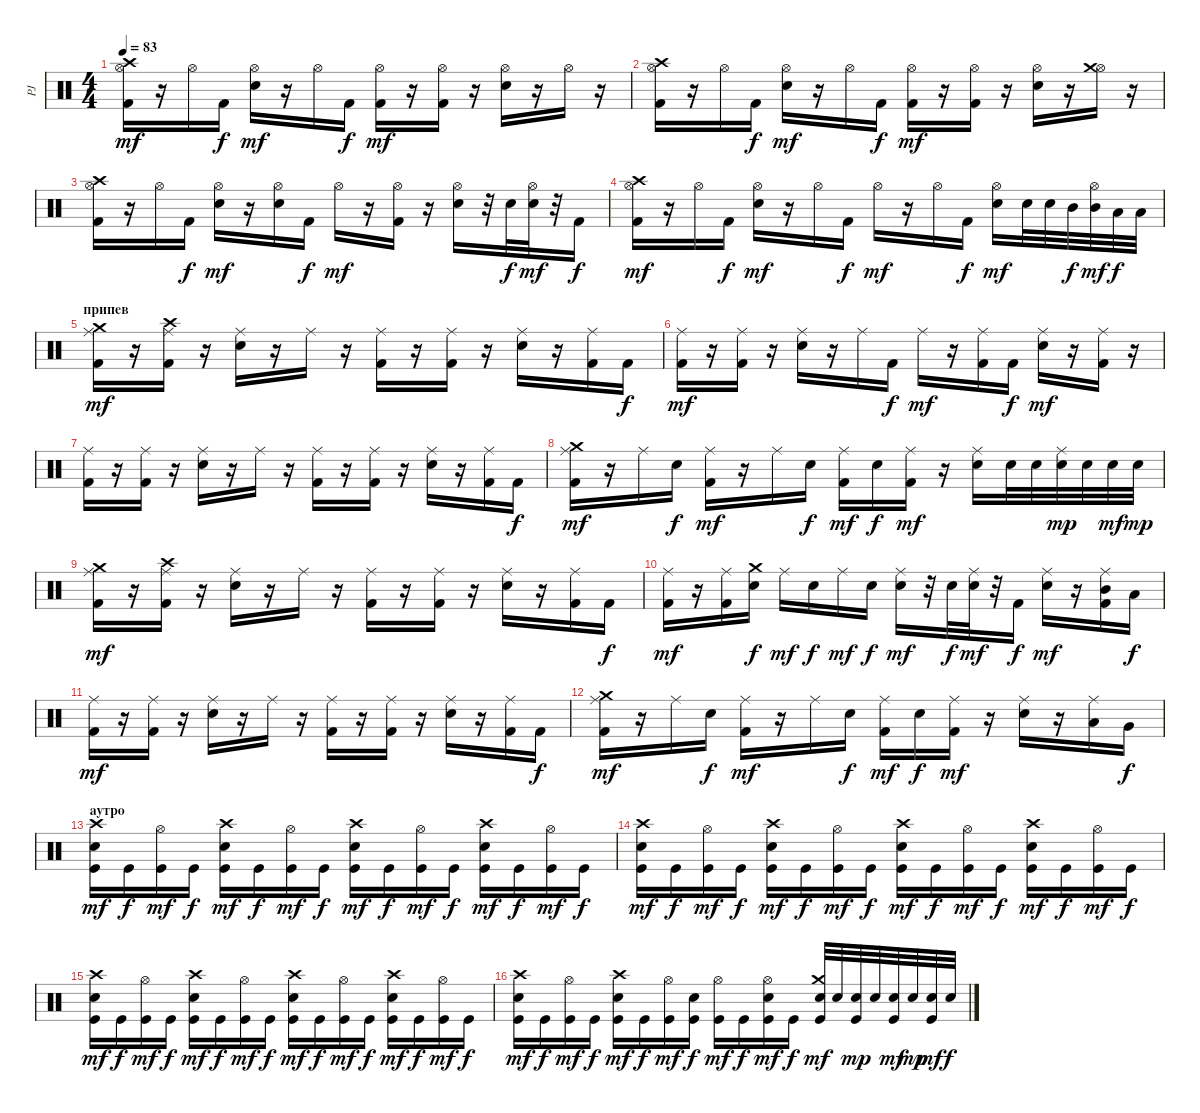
\track ("PJ" "PJ") {instrument percussion}
\staff {score}
\articulation defaults
\ts (4 4)
\tempo 83
\clef neutral
\ks c
("Hi-Hat (open)" "Crash high (hit)" "Kick (hit) 2").16{dy mf} r.16 "Hi-Hat (open)".16 "Kick (hit) 2".16{dy f} ("Hi-Hat (open)" "Electric Snare (hit)").16{dy mf} r.16 "Hi-Hat (open)".16 "Kick (hit) 2".16{dy f} ("Hi-Hat (open)" "Kick (hit) 2").16{dy mf} r.16 ("Hi-Hat (open)" "Kick (hit) 2").16 r.16 ("Hi-Hat (open)" "Electric Snare (hit)").16 r.16 "Hi-Hat (open)".16 r.16 |
("Hi-Hat (open)" "Crash high (hit)" "Kick (hit) 2").16 r.16 "Hi-Hat (open)".16 "Kick (hit) 2".16{dy f} ("Hi-Hat (open)" "Electric Snare (hit)").16{dy mf} r.16 "Hi-Hat (open)".16 "Kick (hit) 2".16{dy f} ("Hi-Hat (open)" "Kick (hit) 2").16{dy mf} r.16 ("Hi-Hat (open)" "Kick (hit) 2").16 r.16 ("Hi-Hat (open)" "Electric Snare (hit)").16 r.16 ("Hi-Hat (open)" "Crash medium (hit)").16 r.16 |
("Hi-Hat (open)" "Crash high (hit)" "Kick (hit) 2").16 r.16 "Hi-Hat (open)".16 "Kick (hit) 2".16{dy f} ("Hi-Hat (open)" "Electric Snare (hit)").16{dy mf} r.16 ("Hi-Hat (open)" "Electric Snare (hit)").16 "Kick (hit) 2".16{dy f} "Hi-Hat (open)".16{dy mf} r.16 ("Hi-Hat (open)" "Kick (hit) 2").16 r.16 ("Hi-Hat (open)" "Electric Snare (hit)").16 r.32 "Electric Snare (hit)".32{dy f} ("Hi-Hat (open)" "Electric Snare (hit)").32{dy mf} r.32 "Kick (hit) 2".16{dy f} |
("Hi-Hat (open)" "Crash high (hit)" "Kick (hit) 2").16{dy mf} r.16 "Hi-Hat (open)".16 "Kick (hit) 2".16{dy f} ("Hi-Hat (open)" "Electric Snare (hit)").16{dy mf} r.16 "Hi-Hat (open)".16 "Kick (hit) 2".16{dy f} "Hi-Hat (open)".16{dy mf} r.16 "Hi-Hat (open)".16 "Kick (hit) 2".16{dy f} ("Hi-Hat (open)" "Electric Snare (hit)").16{dy mf} "Electric Snare (hit)".32 "Electric Snare (hit)".32 "Mid Tom (hit)".32{dy f} ("Hi-Hat (open)" "Mid Tom (hit)").32{dy mf} "Low Tom (hit)".32{dy f} "Low Tom (hit)".32 |
\section ("" "припев")
("Ride (middle)" "Crash medium (hit)" "Kick (hit) 2").16{dy mf} r.16 ("Ride (middle)" "Crash high (hit)" "Kick (hit) 2").16 r.16 ("Ride (middle)" "Electric Snare (hit)").16 r.16 "Ride (middle)".16 r.16 ("Ride (middle)" "Kick (hit) 2").16 r.16 ("Ride (middle)" "Kick (hit) 2").16 r.16 ("Ride (middle)" "Electric Snare (hit)").16 r.16 ("Ride (middle)" "Kick (hit) 2").16 "Kick (hit) 2".16{dy f} |
("Ride (middle)" "Kick (hit) 2").16{dy mf} r.16 ("Ride (middle)" "Kick (hit) 2").16 r.16 ("Ride (middle)" "Electric Snare (hit)").16 r.16 "Ride (middle)".16 "Kick (hit) 2".16{dy f} "Ride (middle)".16{dy mf} r.16 ("Ride (middle)" "Kick (hit) 2").16 "Kick (hit) 2".16{dy f} ("Ride (middle)" "Electric Snare (hit)").16{dy mf} r.16 ("Ride (middle)" "Kick (hit) 2").16 r.16 |
("Ride (middle)" "Kick (hit) 2").16 r.16 ("Ride (middle)" "Kick (hit) 2").16 r.16 ("Ride (middle)" "Electric Snare (hit)").16 r.16 "Ride (middle)".16 r.16 ("Ride (middle)" "Kick (hit) 2").16 r.16 ("Ride (middle)" "Kick (hit) 2").16 r.16 ("Ride (middle)" "Electric Snare (hit)").16 r.16 ("Ride (middle)" "Kick (hit) 2").16 "Kick (hit) 2".16{dy f} |
("Ride (middle)" "Crash medium (hit)" "Kick (hit) 2").16{dy mf} r.16 "Ride (middle)".16 "Electric Snare (hit)".16{dy f} ("Ride (middle)" "Kick (hit) 2").16{dy mf} r.16 "Ride (middle)".16 "Electric Snare (hit)".16{dy f} ("Ride (middle)" "Kick (hit) 2").16{dy mf} "Electric Snare (hit)".16{dy f} ("Ride (middle)" "Kick (hit) 2").16{dy mf} r.16 ("Ride (middle)" "Electric Snare (hit)").16 "Electric Snare (hit)".32 "Electric Snare (hit)".32 ("Ride (middle)" "Electric Snare (hit)").32{dy mp} "Electric Snare (hit)".32 "Electric Snare (hit)".32{dy mf} "Electric Snare (hit)".32{dy mp} |
("Ride (middle)" "Crash medium (hit)" "Kick (hit) 2").16{dy mf} r.16 ("Ride (middle)" "Crash high (hit)" "Kick (hit) 2").16 r.16 ("Ride (middle)" "Electric Snare (hit)").16 r.16 "Ride (middle)".16 r.16 ("Ride (middle)" "Kick (hit) 2").16 r.16 ("Ride (middle)" "Kick (hit) 2").16 r.16 ("Ride (middle)" "Electric Snare (hit)").16 r.16 ("Ride (middle)" "Kick (hit) 2").16 "Kick (hit) 2".16{dy f} |
("Ride (middle)" "Kick (hit) 2").16{dy mf} r.16 ("Ride (middle)" "Kick (hit) 2").16 ("Crash medium (hit)" "Electric Snare (hit)").16{dy f} "Ride (middle)".16{dy mf} "Electric Snare (hit)".16{dy f} "Ride (middle)".16{dy mf} "Electric Snare (hit)".16{dy f} ("Ride (middle)" "Electric Snare (hit)").16{dy mf} r.32 "Electric Snare (hit)".32{dy f} ("Ride (middle)" "Electric Snare (hit)").32{dy mf} r.32 "Kick (hit) 2".16{dy f} ("Ride (middle)" "Electric Snare (hit)").16{dy mf} r.16 ("Ride (middle)" "Mid Tom (hit)" "Kick (hit) 2").16 "Low Tom (hit)".16{dy f} |
("Ride (middle)" "Kick (hit) 2").16{dy mf} r.16 ("Ride (middle)" "Kick (hit) 2").16 r.16 ("Ride (middle)" "Electric Snare (hit)").16 r.16 "Ride (middle)".16 r.16 ("Ride (middle)" "Kick (hit) 2").16 r.16 ("Ride (middle)" "Kick (hit) 2").16 r.16 ("Ride (middle)" "Electric Snare (hit)").16 r.16 ("Ride (middle)" "Kick (hit) 2").16 "Kick (hit) 2".16{dy f} |
("Ride (middle)" "Crash medium (hit)" "Kick (hit) 2").16{dy mf} r.16 "Ride (middle)".16 "Electric Snare (hit)".16{dy f} ("Ride (middle)" "Kick (hit) 2").16{dy mf} r.16 "Ride (middle)".16 "Electric Snare (hit)".16{dy f} ("Ride (middle)" "Kick (hit) 2").16{dy mf} "Electric Snare (hit)".16{dy f} ("Ride (middle)" "Kick (hit) 2").16{dy mf} r.16 ("Ride (middle)" "Electric Snare (hit)").16 r.16 ("Ride (middle)" "Low Tom (hit)").16 "Very Low Tom (hit)".16{dy f} |
\section ("" "аутро")
("Crash high (hit)" "Electric Snare (hit)" "Kick (hit)").16{dy mf} "Kick (hit)".16{dy f} ("Hi-Hat (open)" "Kick (hit)").16{dy mf} "Kick (hit)".16{dy f} ("Crash high (hit)" "Electric Snare (hit)" "Kick (hit)").16{dy mf} "Kick (hit)".16{dy f} ("Hi-Hat (open)" "Kick (hit)").16{dy mf} "Kick (hit)".16{dy f} ("Crash high (hit)" "Electric Snare (hit)" "Kick (hit)").16{dy mf} "Kick (hit)".16{dy f} ("Hi-Hat (open)" "Kick (hit)").16{dy mf} "Kick (hit)".16{dy f} ("Crash high (hit)" "Electric Snare (hit)" "Kick (hit)").16{dy mf} "Kick (hit)".16{dy f} ("Hi-Hat (open)" "Kick (hit)").16{dy mf} "Kick (hit)".16{dy f} |
("Crash high (hit)" "Electric Snare (hit)" "Kick (hit)").16{dy mf} "Kick (hit)".16{dy f} ("Hi-Hat (open)" "Kick (hit)").16{dy mf} "Kick (hit)".16{dy f} ("Crash high (hit)" "Electric Snare (hit)" "Kick (hit)").16{dy mf} "Kick (hit)".16{dy f} ("Hi-Hat (open)" "Kick (hit)").16{dy mf} "Kick (hit)".16{dy f} ("Crash high (hit)" "Electric Snare (hit)" "Kick (hit)").16{dy mf} "Kick (hit)".16{dy f} ("Hi-Hat (open)" "Kick (hit)").16{dy mf} "Kick (hit)".16{dy f} ("Crash high (hit)" "Electric Snare (hit)" "Kick (hit)").16{dy mf} "Kick (hit)".16{dy f} ("Hi-Hat (open)" "Kick (hit)").16{dy mf} "Kick (hit)".16{dy f} |
("Crash high (hit)" "Electric Snare (hit)" "Kick (hit)").16{dy mf} "Kick (hit)".16{dy f} ("Hi-Hat (open)" "Kick (hit)").16{dy mf} "Kick (hit)".16{dy f} ("Crash high (hit)" "Electric Snare (hit)" "Kick (hit)").16{dy mf} "Kick (hit)".16{dy f} ("Hi-Hat (open)" "Kick (hit)").16{dy mf} "Kick (hit)".16{dy f} ("Crash high (hit)" "Electric Snare (hit)" "Kick (hit)").16{dy mf} "Kick (hit)".16{dy f} ("Hi-Hat (open)" "Kick (hit)").16{dy mf} "Kick (hit)".16{dy f} ("Crash high (hit)" "Electric Snare (hit)" "Kick (hit)").16{dy mf} "Kick (hit)".16{dy f} ("Hi-Hat (open)" "Kick (hit)").16{dy mf} "Kick (hit)".16{dy f} |
("Crash high (hit)" "Electric Snare (hit)" "Kick (hit)").16{dy mf} "Kick (hit)".16{dy f} ("Hi-Hat (open)" "Kick (hit)").16{dy mf} "Kick (hit)".16{dy f} ("Crash high (hit)" "Electric Snare (hit)" "Kick (hit)").16{dy mf} "Kick (hit)".16{dy f} ("Hi-Hat (open)" "Kick (hit)").16{dy mf} ("Electric Snare (hit)" "Kick (hit)").16{dy f} ("Hi-Hat (open)" "Kick (hit)").16{dy mf} "Kick (hit)".16{dy f} ("Hi-Hat (open)" "Electric Snare (hit)" "Kick (hit)").16{dy mf} "Kick (hit)".16{dy f} ("Crash medium (hit)" "Electric Snare (hit)" "Kick (hit)").32{dy mf} "Electric Snare (hit)".32 ("Electric Snare (hit)" "Kick (hit)").32{dy mp} "Electric Snare (hit)".32 ("Electric Snare (hit)" "Kick (hit)").32{dy mf} "Electric Snare (hit)".32{dy mp} ("Electric Snare (hit)" "Kick (hit)").32{dy mf} "Electric Snare (hit)".32{dy f}
